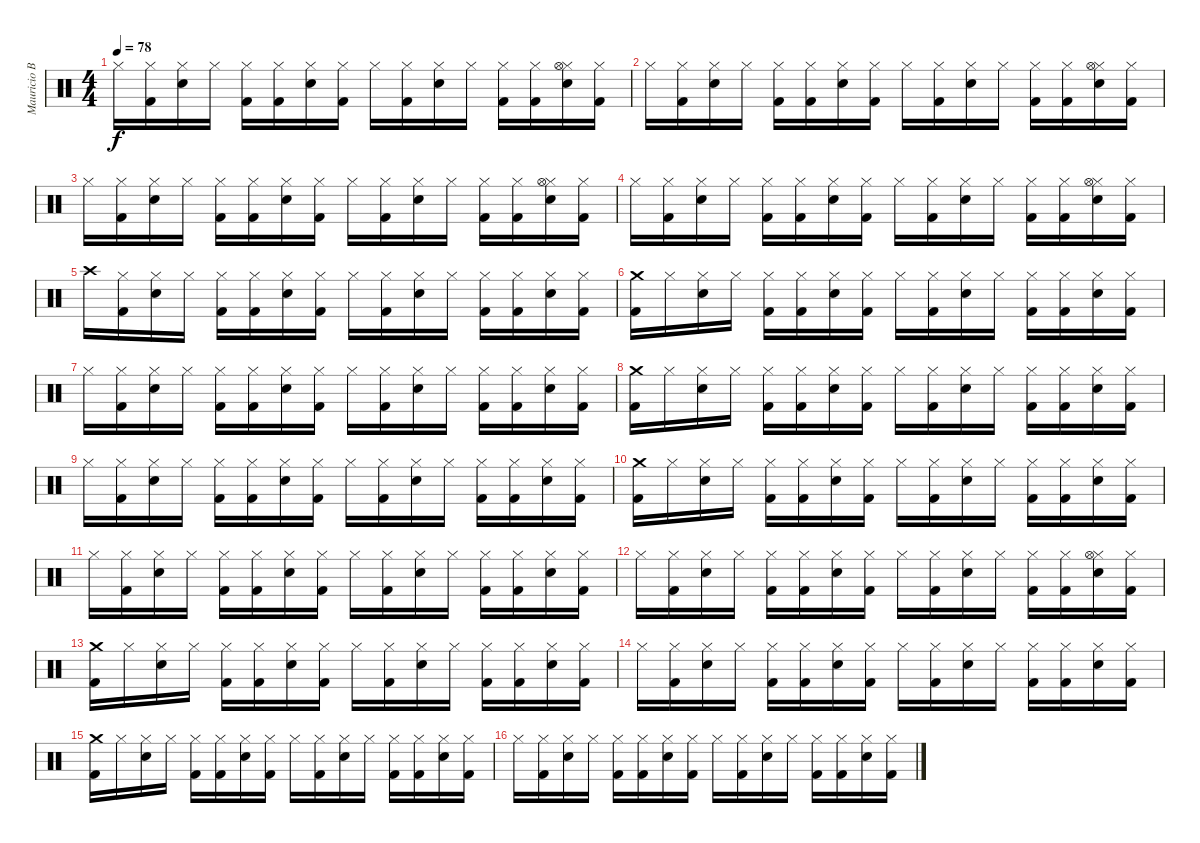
\track ("Mauricio Basualto" "Mauricio B") {instrument percussion}
\staff {score}
\articulation defaults
\ts (4 4)
\tempo 78
\clef neutral
\ks c "Hi-Hat (closed)".16{dy f}
("Hi-Hat (closed)" "Kick (hit) 2").16 ("Hi-Hat (closed)" "Snare (hit) 2").16 "Hi-Hat (closed)".16 ("Hi-Hat (closed)" "Kick (hit) 2").16 ("Hi-Hat (closed)" "Kick (hit) 2").16 ("Hi-Hat (closed)" "Snare (hit) 2").16 ("Hi-Hat (closed)" "Kick (hit) 2").16 "Hi-Hat (closed)".16 ("Hi-Hat (closed)" "Kick (hit) 2").16 ("Hi-Hat (closed)" "Snare (hit) 2").16 "Hi-Hat (closed)".16 ("Hi-Hat (closed)" "Kick (hit) 2").16 ("Hi-Hat (closed)" "Kick (hit) 2").16 ("Hi-Hat (closed)" "Hi-Hat (open)" "Snare (hit) 2").16 ("Hi-Hat (closed)" "Kick (hit) 2").16 |
"Hi-Hat (closed)".16 ("Hi-Hat (closed)" "Kick (hit) 2").16 ("Hi-Hat (closed)" "Snare (hit) 2").16 "Hi-Hat (closed)".16 ("Hi-Hat (closed)" "Kick (hit) 2").16 ("Hi-Hat (closed)" "Kick (hit) 2").16 ("Hi-Hat (closed)" "Snare (hit) 2").16 ("Hi-Hat (closed)" "Kick (hit) 2").16 "Hi-Hat (closed)".16 ("Hi-Hat (closed)" "Kick (hit) 2").16 ("Hi-Hat (closed)" "Snare (hit) 2").16 "Hi-Hat (closed)".16 ("Hi-Hat (closed)" "Kick (hit) 2").16 ("Hi-Hat (closed)" "Kick (hit) 2").16 ("Hi-Hat (closed)" "Hi-Hat (open)" "Snare (hit) 2").16 ("Hi-Hat (closed)" "Kick (hit) 2").16 |
"Hi-Hat (closed)".16 ("Hi-Hat (closed)" "Kick (hit) 2").16 ("Hi-Hat (closed)" "Snare (hit) 2").16 "Hi-Hat (closed)".16 ("Hi-Hat (closed)" "Kick (hit) 2").16 ("Hi-Hat (closed)" "Kick (hit) 2").16 ("Hi-Hat (closed)" "Snare (hit) 2").16 ("Hi-Hat (closed)" "Kick (hit) 2").16 "Hi-Hat (closed)".16 ("Hi-Hat (closed)" "Kick (hit) 2").16 ("Hi-Hat (closed)" "Snare (hit) 2").16 "Hi-Hat (closed)".16 ("Hi-Hat (closed)" "Kick (hit) 2").16 ("Hi-Hat (closed)" "Kick (hit) 2").16 ("Hi-Hat (closed)" "Hi-Hat (open)" "Snare (hit) 2").16 ("Hi-Hat (closed)" "Kick (hit) 2").16 |
"Hi-Hat (closed)".16 ("Hi-Hat (closed)" "Kick (hit) 2").16 ("Hi-Hat (closed)" "Snare (hit) 2").16 "Hi-Hat (closed)".16 ("Hi-Hat (closed)" "Kick (hit) 2").16 ("Hi-Hat (closed)" "Kick (hit) 2").16 ("Hi-Hat (closed)" "Snare (hit) 2").16 ("Hi-Hat (closed)" "Kick (hit) 2").16 "Hi-Hat (closed)".16 ("Hi-Hat (closed)" "Kick (hit) 2").16 ("Hi-Hat (closed)" "Snare (hit) 2").16 "Hi-Hat (closed)".16 ("Hi-Hat (closed)" "Kick (hit) 2").16 ("Hi-Hat (closed)" "Kick (hit) 2").16 ("Hi-Hat (closed)" "Hi-Hat (open)" "Snare (hit) 2").16 ("Hi-Hat (closed)" "Kick (hit) 2").16 |
"Crash high (hit)".16 ("Hi-Hat (closed)" "Kick (hit) 2").16 ("Hi-Hat (closed)" "Snare (hit) 2").16 "Hi-Hat (closed)".16 ("Hi-Hat (closed)" "Kick (hit) 2").16 ("Hi-Hat (closed)" "Kick (hit) 2").16 ("Hi-Hat (closed)" "Snare (hit) 2").16 ("Hi-Hat (closed)" "Kick (hit) 2").16 "Hi-Hat (closed)".16 ("Hi-Hat (closed)" "Kick (hit) 2").16 ("Hi-Hat (closed)" "Snare (hit) 2").16 "Hi-Hat (closed)".16 ("Hi-Hat (closed)" "Kick (hit) 2").16 ("Hi-Hat (closed)" "Kick (hit) 2").16 ("Hi-Hat (closed)" "Snare (hit) 2").16 ("Hi-Hat (closed)" "Kick (hit) 2").16 |
("Crash medium (hit)" "Kick (hit) 2").16 "Hi-Hat (closed)".16 ("Hi-Hat (closed)" "Snare (hit) 2").16 "Hi-Hat (closed)".16 ("Hi-Hat (closed)" "Kick (hit) 2").16 ("Hi-Hat (closed)" "Kick (hit) 2").16 ("Hi-Hat (closed)" "Snare (hit) 2").16 ("Hi-Hat (closed)" "Kick (hit) 2").16 "Hi-Hat (closed)".16 ("Hi-Hat (closed)" "Kick (hit) 2").16 ("Hi-Hat (closed)" "Snare (hit) 2").16 "Hi-Hat (closed)".16 ("Hi-Hat (closed)" "Kick (hit) 2").16 ("Hi-Hat (closed)" "Kick (hit) 2").16 ("Hi-Hat (closed)" "Snare (hit) 2").16 ("Hi-Hat (closed)" "Kick (hit) 2").16 |
"Hi-Hat (closed)".16 ("Hi-Hat (closed)" "Kick (hit) 2").16 ("Hi-Hat (closed)" "Snare (hit) 2").16 "Hi-Hat (closed)".16 ("Hi-Hat (closed)" "Kick (hit) 2").16 ("Hi-Hat (closed)" "Kick (hit) 2").16 ("Hi-Hat (closed)" "Snare (hit) 2").16 ("Hi-Hat (closed)" "Kick (hit) 2").16 "Hi-Hat (closed)".16 ("Hi-Hat (closed)" "Kick (hit) 2").16 ("Hi-Hat (closed)" "Snare (hit) 2").16 "Hi-Hat (closed)".16 ("Hi-Hat (closed)" "Kick (hit) 2").16 ("Hi-Hat (closed)" "Kick (hit) 2").16 ("Hi-Hat (closed)" "Snare (hit) 2").16 ("Hi-Hat (closed)" "Kick (hit) 2").16 |
("Crash medium (hit)" "Kick (hit) 2").16 "Hi-Hat (closed)".16 ("Hi-Hat (closed)" "Snare (hit) 2").16 "Hi-Hat (closed)".16 ("Hi-Hat (closed)" "Kick (hit) 2").16 ("Hi-Hat (closed)" "Kick (hit) 2").16 ("Hi-Hat (closed)" "Snare (hit) 2").16 ("Hi-Hat (closed)" "Kick (hit) 2").16 "Hi-Hat (closed)".16 ("Hi-Hat (closed)" "Kick (hit) 2").16 ("Hi-Hat (closed)" "Snare (hit) 2").16 "Hi-Hat (closed)".16 ("Hi-Hat (closed)" "Kick (hit) 2").16 ("Hi-Hat (closed)" "Kick (hit) 2").16 ("Hi-Hat (closed)" "Snare (hit) 2").16 ("Hi-Hat (closed)" "Kick (hit) 2").16 |
"Hi-Hat (closed)".16 ("Hi-Hat (closed)" "Kick (hit) 2").16 ("Hi-Hat (closed)" "Snare (hit) 2").16 "Hi-Hat (closed)".16 ("Hi-Hat (closed)" "Kick (hit) 2").16 ("Hi-Hat (closed)" "Kick (hit) 2").16 ("Hi-Hat (closed)" "Snare (hit) 2").16 ("Hi-Hat (closed)" "Kick (hit) 2").16 "Hi-Hat (closed)".16 ("Hi-Hat (closed)" "Kick (hit) 2").16 ("Hi-Hat (closed)" "Snare (hit) 2").16 "Hi-Hat (closed)".16 ("Hi-Hat (closed)" "Kick (hit) 2").16 ("Hi-Hat (closed)" "Kick (hit) 2").16 ("Hi-Hat (closed)" "Snare (hit) 2").16 ("Hi-Hat (closed)" "Kick (hit) 2").16 |
("Crash medium (hit)" "Kick (hit) 2").16 "Hi-Hat (closed)".16 ("Hi-Hat (closed)" "Snare (hit) 2").16 "Hi-Hat (closed)".16 ("Hi-Hat (closed)" "Kick (hit) 2").16 ("Hi-Hat (closed)" "Kick (hit) 2").16 ("Hi-Hat (closed)" "Snare (hit) 2").16 ("Hi-Hat (closed)" "Kick (hit) 2").16 "Hi-Hat (closed)".16 ("Hi-Hat (closed)" "Kick (hit) 2").16 ("Hi-Hat (closed)" "Snare (hit) 2").16 "Hi-Hat (closed)".16 ("Hi-Hat (closed)" "Kick (hit) 2").16 ("Hi-Hat (closed)" "Kick (hit) 2").16 ("Hi-Hat (closed)" "Snare (hit) 2").16 ("Hi-Hat (closed)" "Kick (hit) 2").16 |
"Hi-Hat (closed)".16 ("Hi-Hat (closed)" "Kick (hit) 2").16 ("Hi-Hat (closed)" "Snare (hit) 2").16 "Hi-Hat (closed)".16 ("Hi-Hat (closed)" "Kick (hit) 2").16 ("Hi-Hat (closed)" "Kick (hit) 2").16 ("Hi-Hat (closed)" "Snare (hit) 2").16 ("Hi-Hat (closed)" "Kick (hit) 2").16 "Hi-Hat (closed)".16 ("Hi-Hat (closed)" "Kick (hit) 2").16 ("Hi-Hat (closed)" "Snare (hit) 2").16 "Hi-Hat (closed)".16 ("Hi-Hat (closed)" "Kick (hit) 2").16 ("Hi-Hat (closed)" "Kick (hit) 2").16 ("Hi-Hat (closed)" "Snare (hit) 2").16 ("Hi-Hat (closed)" "Kick (hit) 2").16 |
"Hi-Hat (closed)".16 ("Hi-Hat (closed)" "Kick (hit) 2").16 ("Hi-Hat (closed)" "Snare (hit) 2").16 "Hi-Hat (closed)".16 ("Hi-Hat (closed)" "Kick (hit) 2").16 ("Hi-Hat (closed)" "Kick (hit) 2").16 ("Hi-Hat (closed)" "Snare (hit) 2").16 ("Hi-Hat (closed)" "Kick (hit) 2").16 "Hi-Hat (closed)".16 ("Hi-Hat (closed)" "Kick (hit) 2").16 ("Hi-Hat (closed)" "Snare (hit) 2").16 "Hi-Hat (closed)".16 ("Hi-Hat (closed)" "Kick (hit) 2").16 ("Hi-Hat (closed)" "Kick (hit) 2").16 ("Hi-Hat (closed)" "Hi-Hat (open)" "Snare (hit) 2").16 ("Hi-Hat (closed)" "Kick (hit) 2").16 |
("Crash medium (hit)" "Kick (hit) 2").16 "Hi-Hat (closed)".16 ("Hi-Hat (closed)" "Snare (hit) 2").16 "Hi-Hat (closed)".16 ("Hi-Hat (closed)" "Kick (hit) 2").16 ("Hi-Hat (closed)" "Kick (hit) 2").16 ("Hi-Hat (closed)" "Snare (hit) 2").16 ("Hi-Hat (closed)" "Kick (hit) 2").16 "Hi-Hat (closed)".16 ("Hi-Hat (closed)" "Kick (hit) 2").16 ("Hi-Hat (closed)" "Snare (hit) 2").16 "Hi-Hat (closed)".16 ("Hi-Hat (closed)" "Kick (hit) 2").16 ("Hi-Hat (closed)" "Kick (hit) 2").16 ("Hi-Hat (closed)" "Snare (hit) 2").16 ("Hi-Hat (closed)" "Kick (hit) 2").16 |
"Hi-Hat (closed)".16 ("Hi-Hat (closed)" "Kick (hit) 2").16 ("Hi-Hat (closed)" "Snare (hit) 2").16 "Hi-Hat (closed)".16 ("Hi-Hat (closed)" "Kick (hit) 2").16 ("Hi-Hat (closed)" "Kick (hit) 2").16 ("Hi-Hat (closed)" "Snare (hit) 2").16 ("Hi-Hat (closed)" "Kick (hit) 2").16 "Hi-Hat (closed)".16 ("Hi-Hat (closed)" "Kick (hit) 2").16 ("Hi-Hat (closed)" "Snare (hit) 2").16 "Hi-Hat (closed)".16 ("Hi-Hat (closed)" "Kick (hit) 2").16 ("Hi-Hat (closed)" "Kick (hit) 2").16 ("Hi-Hat (closed)" "Snare (hit) 2").16 ("Hi-Hat (closed)" "Kick (hit) 2").16 |
("Crash medium (hit)" "Kick (hit) 2").16 "Hi-Hat (closed)".16 ("Hi-Hat (closed)" "Snare (hit) 2").16 "Hi-Hat (closed)".16 ("Hi-Hat (closed)" "Kick (hit) 2").16 ("Hi-Hat (closed)" "Kick (hit) 2").16 ("Hi-Hat (closed)" "Snare (hit) 2").16 ("Hi-Hat (closed)" "Kick (hit) 2").16 "Hi-Hat (closed)".16 ("Hi-Hat (closed)" "Kick (hit) 2").16 ("Hi-Hat (closed)" "Snare (hit) 2").16 "Hi-Hat (closed)".16 ("Hi-Hat (closed)" "Kick (hit) 2").16 ("Hi-Hat (closed)" "Kick (hit) 2").16 ("Hi-Hat (closed)" "Snare (hit) 2").16 ("Hi-Hat (closed)" "Kick (hit) 2").16 |
"Hi-Hat (closed)".16 ("Hi-Hat (closed)" "Kick (hit) 2").16 ("Hi-Hat (closed)" "Snare (hit) 2").16 "Hi-Hat (closed)".16 ("Hi-Hat (closed)" "Kick (hit) 2").16 ("Hi-Hat (closed)" "Kick (hit) 2").16 ("Hi-Hat (closed)" "Snare (hit) 2").16 ("Hi-Hat (closed)" "Kick (hit) 2").16 "Hi-Hat (closed)".16 ("Hi-Hat (closed)" "Kick (hit) 2").16 ("Hi-Hat (closed)" "Snare (hit) 2").16 "Hi-Hat (closed)".16 ("Hi-Hat (closed)" "Kick (hit) 2").16 ("Hi-Hat (closed)" "Kick (hit) 2").16 ("Hi-Hat (closed)" "Snare (hit) 2").16 ("Hi-Hat (closed)" "Kick (hit) 2").16
